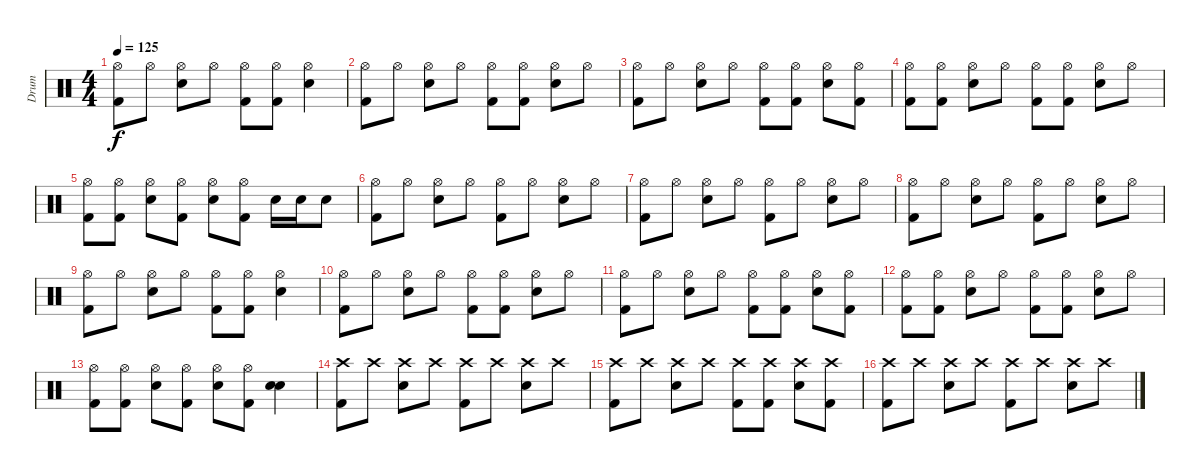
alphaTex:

\track ("Drum" "Drum") {instrument percussion}
\staff {score}
\articulation defaults
\ts (4 4)
\tempo 125
\clef neutral
\ks c
("Kick (hit) 2" "Hi-Hat (open)").8{dy f} "Hi-Hat (open)".8 ("Electric Snare (hit)" "Hi-Hat (open)").8 "Hi-Hat (open)".8 ("Kick (hit) 2" "Hi-Hat (open)").8 ("Kick (hit) 2" "Hi-Hat (open)").8 ("Electric Snare (hit)" "Hi-Hat (open)").4 |
("Kick (hit) 2" "Hi-Hat (open)").8 "Hi-Hat (open)".8 ("Electric Snare (hit)" "Hi-Hat (open)").8 "Hi-Hat (open)".8 ("Kick (hit) 2" "Hi-Hat (open)").8 ("Kick (hit) 2" "Hi-Hat (open)").8 ("Electric Snare (hit)" "Hi-Hat (open)").8 "Hi-Hat (open)".8 |
("Kick (hit) 2" "Hi-Hat (open)").8 "Hi-Hat (open)".8 ("Electric Snare (hit)" "Hi-Hat (open)").8 "Hi-Hat (open)".8 ("Kick (hit) 2" "Hi-Hat (open)").8 ("Kick (hit) 2" "Hi-Hat (open)").8 ("Electric Snare (hit)" "Hi-Hat (open)").8 ("Kick (hit) 2" "Hi-Hat (open)").8 |
("Kick (hit) 2" "Hi-Hat (open)").8 ("Kick (hit) 2" "Hi-Hat (open)").8 ("Electric Snare (hit)" "Hi-Hat (open)").8 "Hi-Hat (open)".8 ("Kick (hit) 2" "Hi-Hat (open)").8 ("Kick (hit) 2" "Hi-Hat (open)").8 ("Electric Snare (hit)" "Hi-Hat (open)").8 "Hi-Hat (open)".8 |
("Kick (hit) 2" "Hi-Hat (open)").8 ("Kick (hit) 2" "Hi-Hat (open)").8 ("Electric Snare (hit)" "Hi-Hat (open)").8 ("Kick (hit) 2" "Hi-Hat (open)").8 ("Electric Snare (hit)" "Hi-Hat (open)").8 ("Kick (hit) 2" "Hi-Hat (open)").8 "Electric Snare (hit)".16 "Electric Snare (hit)".16 "Electric Snare (hit)".8 |
("Kick (hit) 2" "Hi-Hat (open)").8 "Hi-Hat (open)".8 ("Electric Snare (hit)" "Hi-Hat (open)").8 "Hi-Hat (open)".8 ("Kick (hit) 2" "Hi-Hat (open)").8 "Hi-Hat (open)".8 ("Electric Snare (hit)" "Hi-Hat (open)").8 "Hi-Hat (open)".8 |
("Kick (hit) 2" "Hi-Hat (open)").8 "Hi-Hat (open)".8 ("Electric Snare (hit)" "Hi-Hat (open)").8 "Hi-Hat (open)".8 ("Kick (hit) 2" "Hi-Hat (open)").8 "Hi-Hat (open)".8 ("Electric Snare (hit)" "Hi-Hat (open)").8 "Hi-Hat (open)".8 |
("Kick (hit) 2" "Hi-Hat (open)").8 "Hi-Hat (open)".8 ("Electric Snare (hit)" "Hi-Hat (open)").8 "Hi-Hat (open)".8 ("Kick (hit) 2" "Hi-Hat (open)").8 "Hi-Hat (open)".8 ("Electric Snare (hit)" "Hi-Hat (open)").8 "Hi-Hat (open)".8 |
("Kick (hit) 2" "Hi-Hat (open)").8 "Hi-Hat (open)".8 ("Electric Snare (hit)" "Hi-Hat (open)").8 "Hi-Hat (open)".8 ("Kick (hit) 2" "Hi-Hat (open)").8 ("Kick (hit) 2" "Hi-Hat (open)").8 ("Electric Snare (hit)" "Hi-Hat (open)").4 |
("Kick (hit) 2" "Hi-Hat (open)").8 "Hi-Hat (open)".8 ("Electric Snare (hit)" "Hi-Hat (open)").8 "Hi-Hat (open)".8 ("Kick (hit) 2" "Hi-Hat (open)").8 ("Kick (hit) 2" "Hi-Hat (open)").8 ("Electric Snare (hit)" "Hi-Hat (open)").8 "Hi-Hat (open)".8 |
("Kick (hit) 2" "Hi-Hat (open)").8 "Hi-Hat (open)".8 ("Electric Snare (hit)" "Hi-Hat (open)").8 "Hi-Hat (open)".8 ("Kick (hit) 2" "Hi-Hat (open)").8 ("Kick (hit) 2" "Hi-Hat (open)").8 ("Electric Snare (hit)" "Hi-Hat (open)").8 ("Kick (hit) 2" "Hi-Hat (open)").8 |
("Kick (hit) 2" "Hi-Hat (open)").8 ("Kick (hit) 2" "Hi-Hat (open)").8 ("Electric Snare (hit)" "Hi-Hat (open)").8 "Hi-Hat (open)".8 ("Kick (hit) 2" "Hi-Hat (open)").8 ("Kick (hit) 2" "Hi-Hat (open)").8 ("Electric Snare (hit)" "Hi-Hat (open)").8 "Hi-Hat (open)".8 |
("Kick (hit) 2" "Hi-Hat (open)").8 ("Kick (hit) 2" "Hi-Hat (open)").8 ("Electric Snare (hit)" "Hi-Hat (open)").8 ("Kick (hit) 2" "Hi-Hat (open)").8 ("Electric Snare (hit)" "Hi-Hat (open)").8 ("Kick (hit) 2" "Hi-Hat (open)").8 ("Electric Snare (hit)" "Electric Snare (hit)").4 |
("Kick (hit) 2" "Crash high (hit)").8 "Crash high (hit)".8 ("Electric Snare (hit)" "Crash high (hit)").8 "Crash high (hit)".8 ("Kick (hit) 2" "Crash high (hit)").8 "Crash high (hit)".8 ("Electric Snare (hit)" "Crash high (hit)").8 "Crash high (hit)".8 |
("Kick (hit) 2" "Crash high (hit)").8 "Crash high (hit)".8 ("Electric Snare (hit)" "Crash high (hit)").8 "Crash high (hit)".8 ("Kick (hit) 2" "Crash high (hit)").8 ("Kick (hit) 2" "Crash high (hit)").8 ("Electric Snare (hit)" "Crash high (hit)").8 ("Kick (hit) 2" "Crash high (hit)").8 |
("Kick (hit) 2" "Crash high (hit)").8 "Crash high (hit)".8 ("Electric Snare (hit)" "Crash high (hit)").8 "Crash high (hit)".8 ("Kick (hit) 2" "Crash high (hit)").8 "Crash high (hit)".8 ("Electric Snare (hit)" "Crash high (hit)").8 "Crash high (hit)".8
